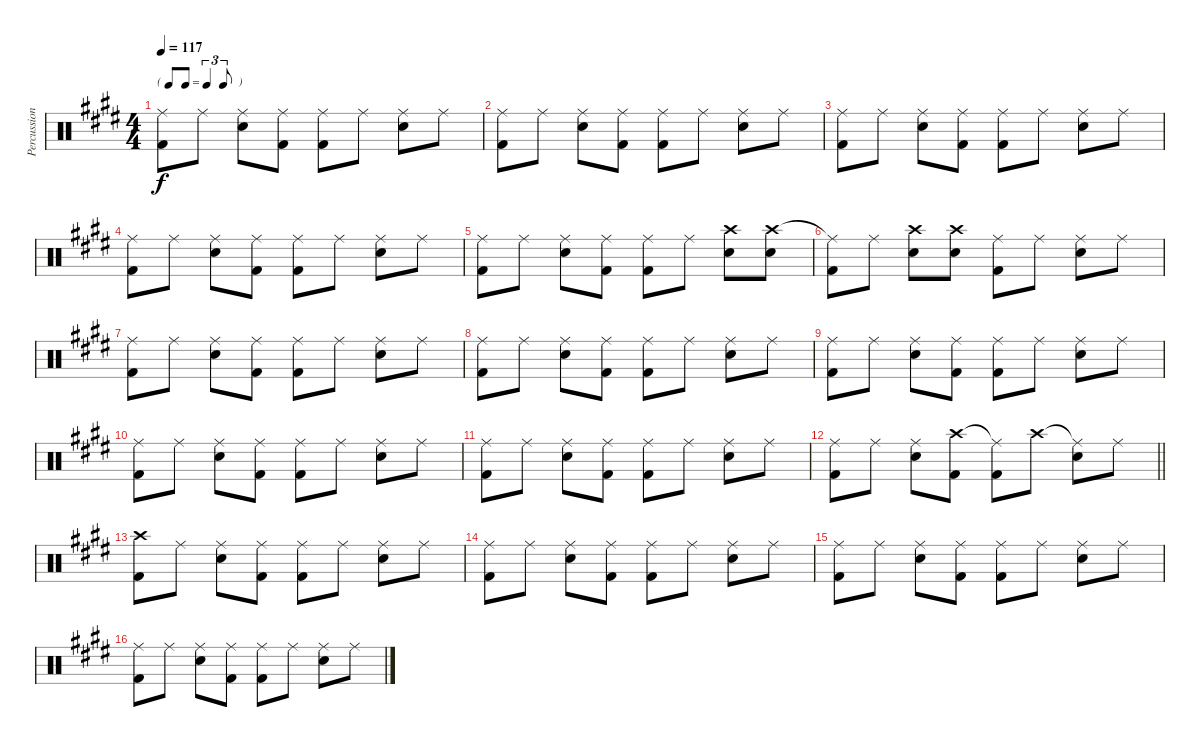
\track ("Percussion" "Percussion") {instrument percussion}
\staff {score}
\articulation defaults
\ts (4 4)
\tf triplet8th
\tempo 117
\clef neutral
\ks e
("Ride (middle)" "Kick (hit) 2").8{dy f} "Ride (middle)".8 ("Ride (middle)" "Snare (hit) 2").8 ("Ride (middle)" "Kick (hit) 2").8 ("Ride (middle)" "Kick (hit) 2").8 "Ride (middle)".8 ("Ride (middle)" "Snare (hit) 2").8 "Ride (middle)".8 |
("Ride (middle)" "Kick (hit) 2").8 "Ride (middle)".8 ("Ride (middle)" "Snare (hit) 2").8 ("Ride (middle)" "Kick (hit) 2").8 ("Ride (middle)" "Kick (hit) 2").8 "Ride (middle)".8 ("Ride (middle)" "Snare (hit) 2").8 "Ride (middle)".8 |
("Ride (middle)" "Kick (hit) 2").8 "Ride (middle)".8 ("Ride (middle)" "Snare (hit) 2").8 ("Ride (middle)" "Kick (hit) 2").8 ("Ride (middle)" "Kick (hit) 2").8 "Ride (middle)".8 ("Ride (middle)" "Snare (hit) 2").8 "Ride (middle)".8 |
("Ride (middle)" "Kick (hit) 2").8 "Ride (middle)".8 ("Ride (middle)" "Snare (hit) 2").8 ("Ride (middle)" "Kick (hit) 2").8 ("Ride (middle)" "Kick (hit) 2").8 "Ride (middle)".8 ("Ride (middle)" "Snare (hit) 2").8 "Ride (middle)".8 |
("Ride (middle)" "Kick (hit) 2").8 "Ride (middle)".8 ("Ride (middle)" "Snare (hit) 2").8 ("Ride (middle)" "Kick (hit) 2").8 ("Ride (middle)" "Kick (hit) 2").8 "Ride (middle)".8 ("Crash high (hit)" "Snare (hit) 2").8 ("Crash high (hit)" "Snare (hit) 2").8 |
("Ride (middle)"{t} "Kick (hit) 2").8 "Ride (middle)".8 ("Crash high (hit)" "Snare (hit) 2").8 ("Crash high (hit)" "Snare (hit) 2").8 ("Ride (middle)" "Kick (hit) 2").8 "Ride (middle)".8 ("Ride (middle)" "Snare (hit) 2").8 "Ride (middle)".8 |
("Ride (middle)" "Kick (hit) 2").8 "Ride (middle)".8 ("Ride (middle)" "Snare (hit) 2").8 ("Ride (middle)" "Kick (hit) 2").8 ("Ride (middle)" "Kick (hit) 2").8 "Ride (middle)".8 ("Ride (middle)" "Snare (hit) 2").8 "Ride (middle)".8 |
("Ride (middle)" "Kick (hit) 2").8 "Ride (middle)".8 ("Ride (middle)" "Snare (hit) 2").8 ("Ride (middle)" "Kick (hit) 2").8 ("Ride (middle)" "Kick (hit) 2").8 "Ride (middle)".8 ("Ride (middle)" "Snare (hit) 2").8 "Ride (middle)".8 |
("Ride (middle)" "Kick (hit) 2").8 "Ride (middle)".8 ("Ride (middle)" "Snare (hit) 2").8 ("Ride (middle)" "Kick (hit) 2").8 ("Ride (middle)" "Kick (hit) 2").8 "Ride (middle)".8 ("Ride (middle)" "Snare (hit) 2").8 "Ride (middle)".8 |
("Ride (middle)" "Kick (hit) 2").8 "Ride (middle)".8 ("Ride (middle)" "Snare (hit) 2").8 ("Ride (middle)" "Kick (hit) 2").8 ("Ride (middle)" "Kick (hit) 2").8 "Ride (middle)".8 ("Ride (middle)" "Snare (hit) 2").8 "Ride (middle)".8 |
("Ride (middle)" "Kick (hit) 2").8 "Ride (middle)".8 ("Ride (middle)" "Snare (hit) 2").8 ("Ride (middle)" "Kick (hit) 2").8 ("Ride (middle)" "Kick (hit) 2").8 "Ride (middle)".8 ("Ride (middle)" "Snare (hit) 2").8 "Ride (middle)".8 |
\barLineRight lightlight
("Ride (middle)" "Kick (hit) 2").8 "Ride (middle)".8 ("Ride (middle)" "Snare (hit) 2").8 ("Crash high (hit)" "Kick (hit) 2").8 ("Ride (middle)"{t} "Kick (hit) 2").8 "Crash high (hit)".8 ("Ride (middle)"{t} "Snare (hit) 2").8 "Ride (middle)".8 |
("Crash high (hit)" "Kick (hit) 2").8 "Ride (middle)".8 ("Ride (middle)" "Snare (hit) 2").8 ("Ride (middle)" "Kick (hit) 2").8 ("Ride (middle)" "Kick (hit) 2").8 "Ride (middle)".8 ("Ride (middle)" "Snare (hit) 2").8 "Ride (middle)".8 |
("Ride (middle)" "Kick (hit) 2").8 "Ride (middle)".8 ("Ride (middle)" "Snare (hit) 2").8 ("Ride (middle)" "Kick (hit) 2").8 ("Ride (middle)" "Kick (hit) 2").8 "Ride (middle)".8 ("Ride (middle)" "Snare (hit) 2").8 "Ride (middle)".8 |
("Ride (middle)" "Kick (hit) 2").8 "Ride (middle)".8 ("Ride (middle)" "Snare (hit) 2").8 ("Ride (middle)" "Kick (hit) 2").8 ("Ride (middle)" "Kick (hit) 2").8 "Ride (middle)".8 ("Ride (middle)" "Snare (hit) 2").8 "Ride (middle)".8 |
("Ride (middle)" "Kick (hit) 2").8 "Ride (middle)".8 ("Ride (middle)" "Snare (hit) 2").8 ("Ride (middle)" "Kick (hit) 2").8 ("Ride (middle)" "Kick (hit) 2").8 "Ride (middle)".8 ("Ride (middle)" "Snare (hit) 2").8 "Ride (middle)".8
